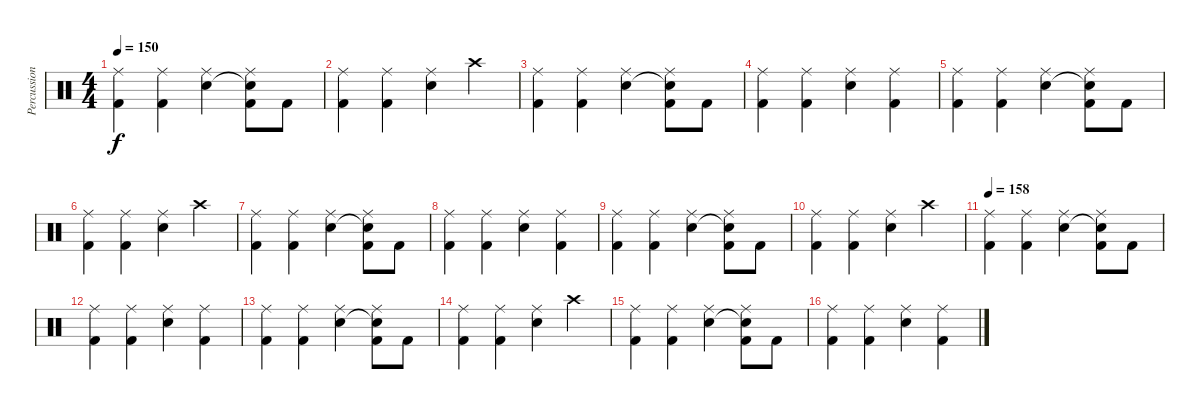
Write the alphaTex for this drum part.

\track ("Percussions" "Percussion") {instrument percussion}
\staff {score}
\articulation defaults
\ts (4 4)
\tempo 150
\clef neutral
\ks c
("Ride (middle)" "Kick (hit) 2").4{dy f} ("Ride (middle)" "Kick (hit) 2").4 ("Ride (middle)" "Electric Snare (hit)").4 ("Ride (middle)" "Snare (hit)"{t} "Kick (hit) 2").8 "Kick (hit) 2".8 |
("Ride (middle)" "Kick (hit) 2").4 ("Ride (middle)" "Kick (hit) 2").4 ("Ride (middle)" "Electric Snare (hit)").4 "Crash high (hit)".4 |
("Ride (middle)" "Kick (hit) 2").4 ("Ride (middle)" "Kick (hit) 2").4 ("Ride (middle)" "Electric Snare (hit)").4 ("Ride (middle)" "Snare (hit)"{t} "Kick (hit) 2").8 "Kick (hit) 2".8 |
("Ride (middle)" "Kick (hit) 2").4 ("Ride (middle)" "Kick (hit) 2").4 ("Ride (middle)" "Electric Snare (hit)").4 ("Ride (middle)" "Kick (hit) 2").4 |
("Ride (middle)" "Kick (hit) 2").4 ("Ride (middle)" "Kick (hit) 2").4 ("Ride (middle)" "Electric Snare (hit)").4 ("Ride (middle)" "Snare (hit)"{t} "Kick (hit) 2").8 "Kick (hit) 2".8 |
("Ride (middle)" "Kick (hit) 2").4 ("Ride (middle)" "Kick (hit) 2").4 ("Ride (middle)" "Electric Snare (hit)").4 "Crash high (hit)".4 |
("Ride (middle)" "Kick (hit) 2").4 ("Ride (middle)" "Kick (hit) 2").4 ("Ride (middle)" "Electric Snare (hit)").4 ("Ride (middle)" "Snare (hit)"{t} "Kick (hit) 2").8 "Kick (hit) 2".8 |
("Ride (middle)" "Kick (hit) 2").4 ("Ride (middle)" "Kick (hit) 2").4 ("Ride (middle)" "Electric Snare (hit)").4 ("Ride (middle)" "Kick (hit) 2").4 |
("Ride (middle)" "Kick (hit) 2").4 ("Ride (middle)" "Kick (hit) 2").4 ("Ride (middle)" "Electric Snare (hit)").4 ("Ride (middle)" "Snare (hit)"{t} "Kick (hit) 2").8 "Kick (hit) 2".8 |
("Ride (middle)" "Kick (hit) 2").4 ("Ride (middle)" "Kick (hit) 2").4 ("Ride (middle)" "Electric Snare (hit)").4 "Crash high (hit)".4 |
\tempo 158
("Ride (middle)" "Kick (hit) 2").4 ("Ride (middle)" "Kick (hit) 2").4 ("Ride (middle)" "Electric Snare (hit)").4 ("Ride (middle)" "Snare (hit)"{t} "Kick (hit) 2").8 "Kick (hit) 2".8 |
("Ride (middle)" "Kick (hit) 2").4 ("Ride (middle)" "Kick (hit) 2").4 ("Ride (middle)" "Electric Snare (hit)").4 ("Ride (middle)" "Kick (hit) 2").4 |
("Ride (middle)" "Kick (hit) 2").4 ("Ride (middle)" "Kick (hit) 2").4 ("Ride (middle)" "Electric Snare (hit)").4 ("Ride (middle)" "Snare (hit)"{t} "Kick (hit) 2").8 "Kick (hit) 2".8 |
("Ride (middle)" "Kick (hit) 2").4 ("Ride (middle)" "Kick (hit) 2").4 ("Ride (middle)" "Electric Snare (hit)").4 "Crash high (hit)".4 |
("Ride (middle)" "Kick (hit) 2").4 ("Ride (middle)" "Kick (hit) 2").4 ("Ride (middle)" "Electric Snare (hit)").4 ("Ride (middle)" "Snare (hit)"{t} "Kick (hit) 2").8 "Kick (hit) 2".8 |
("Ride (middle)" "Kick (hit) 2").4 ("Ride (middle)" "Kick (hit) 2").4 ("Ride (middle)" "Electric Snare (hit)").4 ("Ride (middle)" "Kick (hit) 2").4
